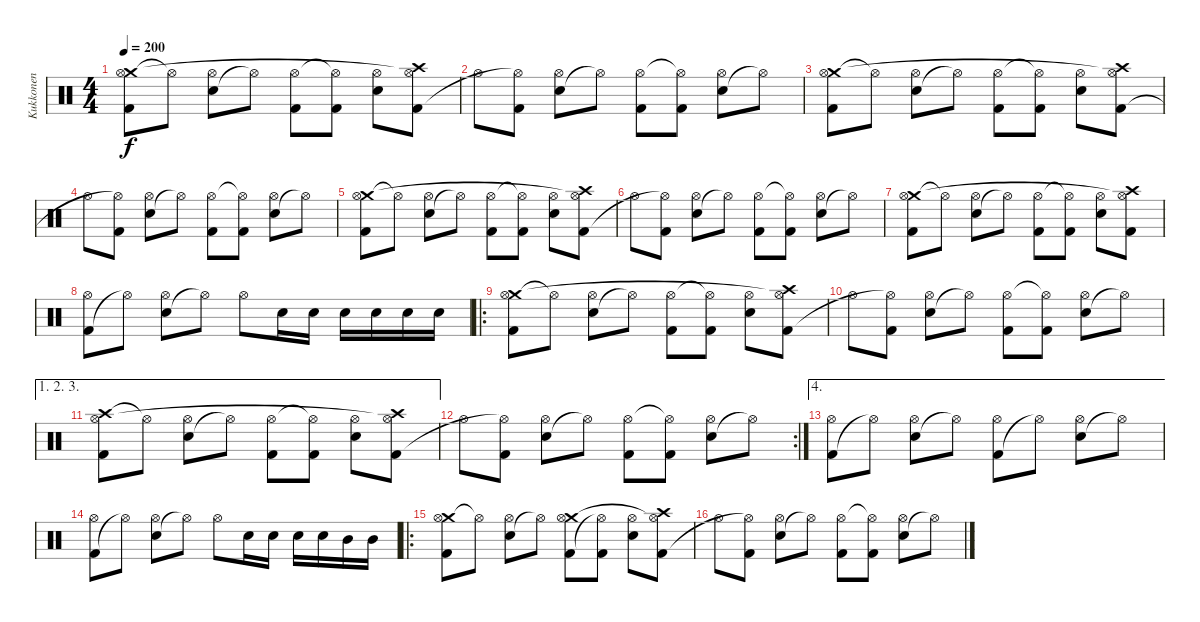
\track ("Kukkonen" "Kukkonen") {instrument percussion}
\staff {score}
\articulation defaults
\ts (4 4)
\tempo 200
\clef neutral
\ks c
("Crash medium (hit)" "Kick (hit) 2" "Hi-Hat (open)").8{dy f} "Hi-Hat (open)"{t}.8 ("Electric Snare (hit)" "Hi-Hat (open)").8 "Hi-Hat (open)"{t}.8 ("Kick (hit) 2" "Hi-Hat (open)").8 ("Kick (hit) 2" "Hi-Hat (open)"{t}).8 ("Electric Snare (hit)" "Hi-Hat (open)").8 ("Crash high (hit)" "Kick (hit) 2" "Hi-Hat (open)"{t}).8 |
"Hi-Hat (open)".8 ("Kick (hit) 2" "Hi-Hat (open)"{t}).8 ("Electric Snare (hit)" "Hi-Hat (open)").8 "Hi-Hat (open)"{t}.8 ("Kick (hit) 2" "Hi-Hat (open)").8 ("Kick (hit) 2" "Hi-Hat (open)"{t}).8 ("Electric Snare (hit)" "Hi-Hat (open)").8 "Hi-Hat (open)"{t}.8 |
("Crash medium (hit)" "Kick (hit) 2" "Hi-Hat (open)").8 "Hi-Hat (open)"{t}.8 ("Electric Snare (hit)" "Hi-Hat (open)").8 "Hi-Hat (open)"{t}.8 ("Kick (hit) 2" "Hi-Hat (open)").8 ("Kick (hit) 2" "Hi-Hat (open)"{t}).8 ("Electric Snare (hit)" "Hi-Hat (open)").8 ("Crash high (hit)" "Kick (hit) 2" "Hi-Hat (open)"{t}).8 |
"Hi-Hat (open)".8 ("Kick (hit) 2" "Hi-Hat (open)"{t}).8 ("Electric Snare (hit)" "Hi-Hat (open)").8 "Hi-Hat (open)"{t}.8 ("Kick (hit) 2" "Hi-Hat (open)").8 ("Kick (hit) 2" "Hi-Hat (open)"{t}).8 ("Electric Snare (hit)" "Hi-Hat (open)").8 "Hi-Hat (open)"{t}.8 |
("Crash medium (hit)" "Kick (hit) 2" "Hi-Hat (open)").8 "Hi-Hat (open)"{t}.8 ("Electric Snare (hit)" "Hi-Hat (open)").8 "Hi-Hat (open)"{t}.8 ("Kick (hit) 2" "Hi-Hat (open)").8 ("Kick (hit) 2" "Hi-Hat (open)"{t}).8 ("Electric Snare (hit)" "Hi-Hat (open)").8 ("Crash high (hit)" "Kick (hit) 2" "Hi-Hat (open)"{t}).8 |
"Hi-Hat (open)".8 ("Kick (hit) 2" "Hi-Hat (open)"{t}).8 ("Electric Snare (hit)" "Hi-Hat (open)").8 "Hi-Hat (open)"{t}.8 ("Kick (hit) 2" "Hi-Hat (open)").8 ("Kick (hit) 2" "Hi-Hat (open)"{t}).8 ("Electric Snare (hit)" "Hi-Hat (open)").8 "Hi-Hat (open)"{t}.8 |
("Crash medium (hit)" "Kick (hit) 2" "Hi-Hat (open)").8 "Hi-Hat (open)"{t}.8 ("Electric Snare (hit)" "Hi-Hat (open)").8 "Hi-Hat (open)"{t}.8 ("Kick (hit) 2" "Hi-Hat (open)").8 ("Kick (hit) 2" "Hi-Hat (open)"{t}).8 ("Electric Snare (hit)" "Hi-Hat (open)").8 ("Crash high (hit)" "Kick (hit) 2" "Hi-Hat (open)"{t}).8 |
("Kick (hit) 2" "Hi-Hat (open)").8 "Hi-Hat (open)"{t}.8 ("Electric Snare (hit)" "Hi-Hat (open)").8 "Hi-Hat (open)"{t}.8 "Hi-Hat (open)".8 "Electric Snare (hit)".16 "Electric Snare (hit)".16 "Electric Snare (hit)".16 "Electric Snare (hit)".16 "Electric Snare (hit)".16 "Electric Snare (hit)".16 |
\ro
("Crash medium (hit)" "Kick (hit) 2" "Hi-Hat (open)").8 "Hi-Hat (open)"{t}.8 ("Electric Snare (hit)" "Hi-Hat (open)").8 "Hi-Hat (open)"{t}.8 ("Kick (hit) 2" "Hi-Hat (open)").8 ("Kick (hit) 2" "Hi-Hat (open)"{t}).8 ("Electric Snare (hit)" "Hi-Hat (open)").8 ("Crash high (hit)" "Kick (hit) 2" "Hi-Hat (open)"{t}).8 |
"Hi-Hat (open)".8 ("Kick (hit) 2" "Hi-Hat (open)"{t}).8 ("Electric Snare (hit)" "Hi-Hat (open)").8 "Hi-Hat (open)"{t}.8 ("Kick (hit) 2" "Hi-Hat (open)").8 ("Kick (hit) 2" "Hi-Hat (open)"{t}).8 ("Electric Snare (hit)" "Hi-Hat (open)").8 "Hi-Hat (open)"{t}.8 |
\ae (1 2 3)
("Crash high (hit)" "Kick (hit) 2" "Hi-Hat (open)").8 "Hi-Hat (open)"{t}.8 ("Electric Snare (hit)" "Hi-Hat (open)").8 "Hi-Hat (open)"{t}.8 ("Kick (hit) 2" "Hi-Hat (open)").8 ("Kick (hit) 2" "Hi-Hat (open)"{t}).8 ("Electric Snare (hit)" "Hi-Hat (open)").8 ("Crash high (hit)" "Kick (hit) 2" "Hi-Hat (open)"{t}).8 |
\rc 2 "Hi-Hat (open)".8
("Kick (hit) 2" "Hi-Hat (open)"{t}).8 ("Electric Snare (hit)" "Hi-Hat (open)").8 "Hi-Hat (open)"{t}.8 ("Kick (hit) 2" "Hi-Hat (open)").8 ("Kick (hit) 2" "Hi-Hat (open)"{t}).8 ("Electric Snare (hit)" "Hi-Hat (open)").8 "Hi-Hat (open)"{t}.8 |
\ae 4
("Kick (hit) 2" "Hi-Hat (open)").8 "Hi-Hat (open)"{t}.8 ("Electric Snare (hit)" "Hi-Hat (open)").8 "Hi-Hat (open)"{t}.8 ("Kick (hit) 2" "Hi-Hat (open)").8 "Hi-Hat (open)"{t}.8 ("Electric Snare (hit)" "Hi-Hat (open)").8 "Hi-Hat (open)"{t}.8 |
("Kick (hit) 2" "Hi-Hat (open)").8 "Hi-Hat (open)"{t}.8 ("Electric Snare (hit)" "Hi-Hat (open)").8 "Hi-Hat (open)"{t}.8 "Hi-Hat (open)".8 "Electric Snare (hit)".16 "Electric Snare (hit)".16 "Electric Snare (hit)".16 "Electric Snare (hit)".16 "Mid Tom (hit)".16 "Mid Tom (hit)".16 |
\ro
("Crash medium (hit)" "Kick (hit) 2" "Hi-Hat (open)").8 "Hi-Hat (open)"{t}.8 ("Electric Snare (hit)" "Hi-Hat (open)").8 "Hi-Hat (open)"{t}.8 ("Crash medium (hit)" "Kick (hit) 2" "Hi-Hat (open)").8 ("Kick (hit) 2" "Hi-Hat (open)"{t}).8 ("Electric Snare (hit)" "Hi-Hat (open)").8 ("Crash high (hit)" "Kick (hit) 2" "Hi-Hat (open)"{t}).8 |
"Hi-Hat (open)".8 ("Kick (hit) 2" "Hi-Hat (open)"{t}).8 ("Electric Snare (hit)" "Hi-Hat (open)").8 "Hi-Hat (open)"{t}.8 ("Kick (hit) 2" "Hi-Hat (open)").8 ("Kick (hit) 2" "Hi-Hat (open)"{t}).8 ("Electric Snare (hit)" "Hi-Hat (open)").8 "Hi-Hat (open)"{t}.8
